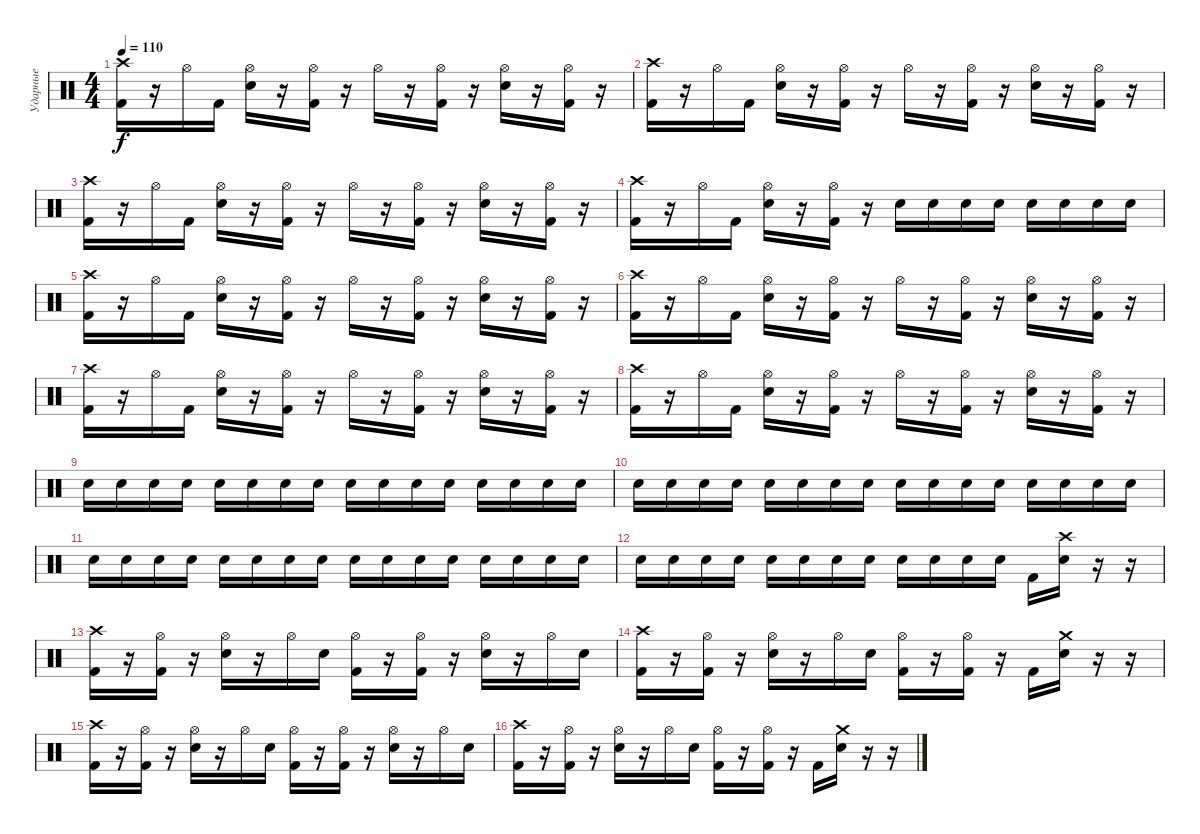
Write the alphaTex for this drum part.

\track ("Ударные" "Ударные") {instrument percussion}
\staff {score}
\articulation defaults
\ts (4 4)
\tempo 110
\clef neutral
\ks c
("Crash high (hit)" "Kick (hit) 2").16{dy f} r.16 "Hi-Hat (open)".16 "Kick (hit) 2".16 ("Hi-Hat (open)" "Snare (hit) 2").16 r.16 ("Hi-Hat (open)" "Kick (hit) 2").16 r.16 "Hi-Hat (open)".16 r.16 ("Hi-Hat (open)" "Kick (hit) 2").16 r.16 ("Hi-Hat (open)" "Snare (hit) 2").16 r.16 ("Hi-Hat (open)" "Kick (hit) 2").16 r.16 |
("Crash high (hit)" "Kick (hit) 2").16 r.16 "Hi-Hat (open)".16 "Kick (hit) 2".16 ("Hi-Hat (open)" "Snare (hit) 2").16 r.16 ("Hi-Hat (open)" "Kick (hit) 2").16 r.16 "Hi-Hat (open)".16 r.16 ("Hi-Hat (open)" "Kick (hit) 2").16 r.16 ("Hi-Hat (open)" "Snare (hit) 2").16 r.16 ("Hi-Hat (open)" "Kick (hit) 2").16 r.16 |
("Crash high (hit)" "Kick (hit) 2").16 r.16 "Hi-Hat (open)".16 "Kick (hit) 2".16 ("Hi-Hat (open)" "Snare (hit) 2").16 r.16 ("Hi-Hat (open)" "Kick (hit) 2").16 r.16 "Hi-Hat (open)".16 r.16 ("Hi-Hat (open)" "Kick (hit) 2").16 r.16 ("Hi-Hat (open)" "Snare (hit) 2").16 r.16 ("Hi-Hat (open)" "Kick (hit) 2").16 r.16 |
("Crash high (hit)" "Kick (hit) 2").16 r.16 "Hi-Hat (open)".16 "Kick (hit) 2".16 ("Hi-Hat (open)" "Snare (hit) 2").16 r.16 ("Hi-Hat (open)" "Kick (hit) 2").16 r.16 "Snare (hit) 2".16 "Snare (hit) 2".16 "Snare (hit) 2".16 "Snare (hit) 2".16 "Snare (hit) 2".16 "Snare (hit) 2".16 "Snare (hit) 2".16 "Snare (hit) 2".16 |
("Crash high (hit)" "Kick (hit) 2").16 r.16 "Hi-Hat (open)".16 "Kick (hit) 2".16 ("Hi-Hat (open)" "Snare (hit) 2").16 r.16 ("Hi-Hat (open)" "Kick (hit) 2").16 r.16 "Hi-Hat (open)".16 r.16 ("Hi-Hat (open)" "Kick (hit) 2").16 r.16 ("Hi-Hat (open)" "Snare (hit) 2").16 r.16 ("Hi-Hat (open)" "Kick (hit) 2").16 r.16 |
("Crash high (hit)" "Kick (hit) 2").16 r.16 "Hi-Hat (open)".16 "Kick (hit) 2".16 ("Hi-Hat (open)" "Snare (hit) 2").16 r.16 ("Hi-Hat (open)" "Kick (hit) 2").16 r.16 "Hi-Hat (open)".16 r.16 ("Hi-Hat (open)" "Kick (hit) 2").16 r.16 ("Hi-Hat (open)" "Snare (hit) 2").16 r.16 ("Hi-Hat (open)" "Kick (hit) 2").16 r.16 |
("Crash high (hit)" "Kick (hit) 2").16 r.16 "Hi-Hat (open)".16 "Kick (hit) 2".16 ("Hi-Hat (open)" "Snare (hit) 2").16 r.16 ("Hi-Hat (open)" "Kick (hit) 2").16 r.16 "Hi-Hat (open)".16 r.16 ("Hi-Hat (open)" "Kick (hit) 2").16 r.16 ("Hi-Hat (open)" "Snare (hit) 2").16 r.16 ("Hi-Hat (open)" "Kick (hit) 2").16 r.16 |
("Crash high (hit)" "Kick (hit) 2").16 r.16 "Hi-Hat (open)".16 "Kick (hit) 2".16 ("Hi-Hat (open)" "Snare (hit) 2").16 r.16 ("Hi-Hat (open)" "Kick (hit) 2").16 r.16 "Hi-Hat (open)".16 r.16 ("Hi-Hat (open)" "Kick (hit) 2").16 r.16 ("Hi-Hat (open)" "Snare (hit) 2").16 r.16 ("Hi-Hat (open)" "Kick (hit) 2").16 r.16{volume 2} |
"Snare (hit) 2".16{volume 13} "Snare (hit) 2".16 "Snare (hit) 2".16 "Snare (hit) 2".16 "Snare (hit) 2".16 "Snare (hit) 2".16 "Snare (hit) 2".16 "Snare (hit) 2".16 "Snare (hit) 2".16 "Snare (hit) 2".16 "Snare (hit) 2".16 "Snare (hit) 2".16 "Snare (hit) 2".16 "Snare (hit) 2".16 "Snare (hit) 2".16 "Snare (hit) 2".16 |
"Snare (hit) 2".16 "Snare (hit) 2".16 "Snare (hit) 2".16 "Snare (hit) 2".16 "Snare (hit) 2".16 "Snare (hit) 2".16 "Snare (hit) 2".16 "Snare (hit) 2".16 "Snare (hit) 2".16 "Snare (hit) 2".16 "Snare (hit) 2".16 "Snare (hit) 2".16 "Snare (hit) 2".16 "Snare (hit) 2".16 "Snare (hit) 2".16 "Snare (hit) 2".16 |
"Snare (hit) 2".16 "Snare (hit) 2".16 "Snare (hit) 2".16 "Snare (hit) 2".16 "Snare (hit) 2".16 "Snare (hit) 2".16 "Snare (hit) 2".16 "Snare (hit) 2".16 "Snare (hit) 2".16 "Snare (hit) 2".16 "Snare (hit) 2".16 "Snare (hit) 2".16 "Snare (hit) 2".16 "Snare (hit) 2".16 "Snare (hit) 2".16 "Snare (hit) 2".16 |
"Snare (hit) 2".16 "Snare (hit) 2".16 "Snare (hit) 2".16 "Snare (hit) 2".16 "Snare (hit) 2".16 "Snare (hit) 2".16 "Snare (hit) 2".16 "Snare (hit) 2".16 "Snare (hit) 2".16 "Snare (hit) 2".16 "Snare (hit) 2".16 "Snare (hit) 2".16 "Kick (hit) 2".16 ("Crash high (hit)" "Snare (hit) 2").16 r.16 r.16 |
("Crash high (hit)" "Kick (hit) 2").16 r.16 ("Hi-Hat (open)" "Kick (hit) 2").16 r.16 ("Hi-Hat (open)" "Snare (hit) 2").16 r.16 "Hi-Hat (open)".16 "Snare (hit) 2".16 ("Hi-Hat (open)" "Kick (hit) 2").16 r.16 ("Hi-Hat (open)" "Kick (hit) 2").16 r.16 ("Hi-Hat (open)" "Snare (hit) 2").16 r.16 "Hi-Hat (open)".16 "Snare (hit) 2".16 |
("Crash high (hit)" "Kick (hit) 2").16 r.16 ("Hi-Hat (open)" "Kick (hit) 2").16 r.16 ("Hi-Hat (open)" "Snare (hit) 2").16 r.16 "Hi-Hat (open)".16 "Snare (hit) 2".16 ("Hi-Hat (open)" "Kick (hit) 2").16 r.16 ("Hi-Hat (open)" "Kick (hit) 2").16 r.16 "Kick (hit) 2".16 ("Crash medium (hit)" "Snare (hit) 2").16 r.16 r.16 |
("Crash high (hit)" "Kick (hit) 2").16 r.16 ("Hi-Hat (open)" "Kick (hit) 2").16 r.16 ("Hi-Hat (open)" "Snare (hit) 2").16 r.16 "Hi-Hat (open)".16 "Snare (hit) 2".16 ("Hi-Hat (open)" "Kick (hit) 2").16 r.16 ("Hi-Hat (open)" "Kick (hit) 2").16 r.16 ("Hi-Hat (open)" "Snare (hit) 2").16 r.16 "Hi-Hat (open)".16 "Snare (hit) 2".16 |
("Crash high (hit)" "Kick (hit) 2").16 r.16 ("Hi-Hat (open)" "Kick (hit) 2").16 r.16 ("Hi-Hat (open)" "Snare (hit) 2").16 r.16 "Hi-Hat (open)".16 "Snare (hit) 2".16 ("Hi-Hat (open)" "Kick (hit) 2").16 r.16 ("Hi-Hat (open)" "Kick (hit) 2").16 r.16 "Kick (hit) 2".16 ("Crash medium (hit)" "Snare (hit) 2").16 r.16 r.16
